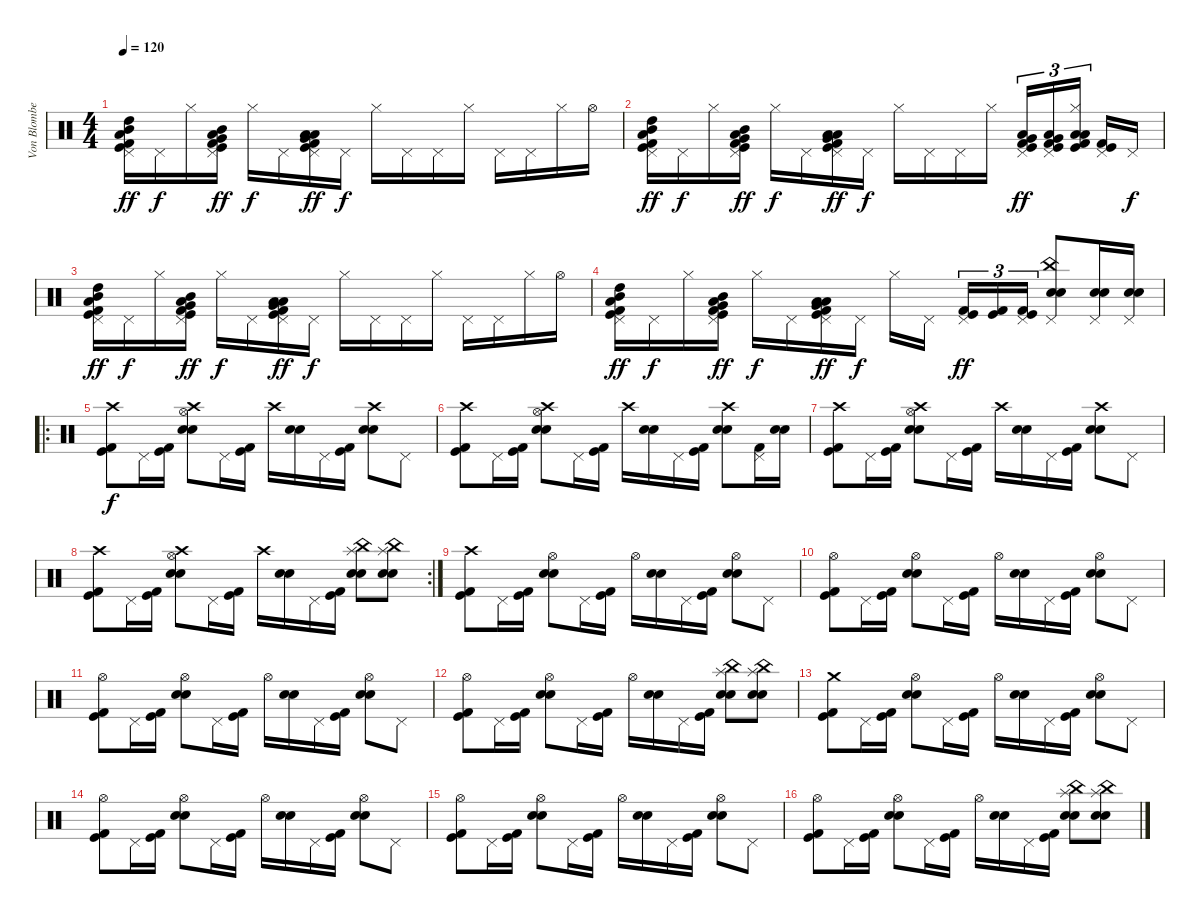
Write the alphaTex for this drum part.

\track ("Von Blomberg" "Von Blombe") {instrument percussion}
\staff {score}
\articulation defaults
\ts (4 4)
\tempo 120
\clef neutral
\ks c
("High Tom (hit)" "Mid Tom (hit)" "Pedal Hi-Hat (hit)" "Low Tom (hit)" "Kick (hit) 2" "Kick (hit)").16{dy ff} "Pedal Hi-Hat (hit)".16{dy f} "Hi-Hat (closed)".16 ("Mid Tom (hit)" "Low Tom (hit)" "Pedal Hi-Hat (hit)" "Very Low Tom (hit)" "Kick (hit)" "Kick (hit) 2").16{dy ff} "Hi-Hat (closed)".16{dy f} "Pedal Hi-Hat (hit)".16 ("Very Low Tom (hit)" "Low Floor Tom (hit)" "Pedal Hi-Hat (hit)" "Low Floor Tom (hit)" "Kick (hit)" "Kick (hit) 2").16{dy ff} "Pedal Hi-Hat (hit)".16{dy f} "Hi-Hat (closed)".16 "Pedal Hi-Hat (hit)".16 "Pedal Hi-Hat (hit)".16 "Hi-Hat (closed)".16 "Pedal Hi-Hat (hit)".16 "Pedal Hi-Hat (hit)".16 "Hi-Hat (closed)".16 "Hi-Hat (open)".16 |
("High Tom (hit)" "Mid Tom (hit)" "Pedal Hi-Hat (hit)" "Low Tom (hit)" "Kick (hit) 2" "Kick (hit)").16{dy ff} "Pedal Hi-Hat (hit)".16{dy f} "Hi-Hat (closed)".16 ("Mid Tom (hit)" "Low Tom (hit)" "Pedal Hi-Hat (hit)" "Very Low Tom (hit)" "Kick (hit)" "Kick (hit) 2").16{dy ff} "Hi-Hat (closed)".16{dy f} "Pedal Hi-Hat (hit)".16 ("Very Low Tom (hit)" "Low Floor Tom (hit)" "Pedal Hi-Hat (hit)" "Low Floor Tom (hit)" "Kick (hit)" "Kick (hit) 2").16{dy ff} "Pedal Hi-Hat (hit)".16{dy f} "Hi-Hat (closed)".16 "Pedal Hi-Hat (hit)".16 "Pedal Hi-Hat (hit)".16 "Hi-Hat (closed)".16 ("Low Tom (hit)" "Very Low Tom (hit)" "Pedal Hi-Hat (hit)" "Kick (hit)" "Kick (hit) 2").16{tu (3 2) dy ff} ("Very Low Tom (hit)" "Low Floor Tom (hit)" "Pedal Hi-Hat (hit)" "Kick (hit)" "Kick (hit) 2").16{tu (3 2)} ("Low Floor Tom (hit)" "Low Floor Tom (hit)" "Hi-Hat (closed)" "Kick (hit)" "Kick (hit) 2").16{tu (3 2)} ("Pedal Hi-Hat (hit)" "Kick (hit)" "Kick (hit) 2").16 "Pedal Hi-Hat (hit)".16{dy f} |
("High Tom (hit)" "Mid Tom (hit)" "Pedal Hi-Hat (hit)" "Low Tom (hit)" "Kick (hit) 2" "Kick (hit)").16{dy ff} "Pedal Hi-Hat (hit)".16{dy f} "Hi-Hat (closed)".16 ("Mid Tom (hit)" "Low Tom (hit)" "Pedal Hi-Hat (hit)" "Very Low Tom (hit)" "Kick (hit)" "Kick (hit) 2").16{dy ff} "Hi-Hat (closed)".16{dy f} "Pedal Hi-Hat (hit)".16 ("Very Low Tom (hit)" "Low Floor Tom (hit)" "Pedal Hi-Hat (hit)" "Low Floor Tom (hit)" "Kick (hit)" "Kick (hit) 2").16{dy ff} "Pedal Hi-Hat (hit)".16{dy f} "Hi-Hat (closed)".16 "Pedal Hi-Hat (hit)".16 "Pedal Hi-Hat (hit)".16 "Hi-Hat (closed)".16 "Pedal Hi-Hat (hit)".16 "Pedal Hi-Hat (hit)".16 "Hi-Hat (closed)".16 "Hi-Hat (open)".16 |
("High Tom (hit)" "Mid Tom (hit)" "Pedal Hi-Hat (hit)" "Low Tom (hit)" "Kick (hit) 2" "Kick (hit)").16{dy ff} "Pedal Hi-Hat (hit)".16{dy f} "Hi-Hat (closed)".16 ("Mid Tom (hit)" "Low Tom (hit)" "Pedal Hi-Hat (hit)" "Very Low Tom (hit)" "Kick (hit)" "Kick (hit) 2").16{dy ff} "Hi-Hat (closed)".16{dy f} "Pedal Hi-Hat (hit)".16 ("Very Low Tom (hit)" "Low Floor Tom (hit)" "Pedal Hi-Hat (hit)" "Low Floor Tom (hit)" "Kick (hit)" "Kick (hit) 2").16{dy ff} "Pedal Hi-Hat (hit)".16{dy f} "Hi-Hat (closed)".16 "Pedal Hi-Hat (hit)".16 ("Pedal Hi-Hat (hit)" "Kick (hit)" "Kick (hit) 2").16{tu (3 2) dy ff} ("Kick (hit)" "Kick (hit) 2").16{tu (3 2)} ("Pedal Hi-Hat (hit)" "Kick (hit)" "Kick (hit) 2").16{tu (3 2)} ("China (hit)" "Pedal Hi-Hat (hit)" "Snare (hit) 2" "Electric Snare (hit)").8 ("Pedal Hi-Hat (hit)" "Snare (hit) 2" "Electric Snare (hit)").16 ("Pedal Hi-Hat (hit)" "Snare (hit) 2" "Electric Snare (hit)").16 |
\ro
("Crash high (hit)" "Kick (hit)" "Kick (hit) 2").8{dy f} "Pedal Hi-Hat (hit)".16 ("Kick (hit)" "Kick (hit) 2").16 ("Crash high (hit)" "Hi-Hat (open)" "Snare (hit) 2" "Electric Snare (hit)").8 "Pedal Hi-Hat (hit)".16 ("Kick (hit)" "Kick (hit) 2").16 "Crash high (hit)".16 ("Snare (hit) 2" "Electric Snare (hit)").16 "Pedal Hi-Hat (hit)".16 ("Kick (hit)" "Kick (hit) 2").16 ("Crash high (hit)" "Snare (hit) 2" "Electric Snare (hit)").8 "Pedal Hi-Hat (hit)".8 |
("Crash high (hit)" "Kick (hit)" "Kick (hit) 2").8 "Pedal Hi-Hat (hit)".16 ("Kick (hit)" "Kick (hit) 2").16 ("Crash high (hit)" "Hi-Hat (open)" "Snare (hit) 2" "Electric Snare (hit)").8 "Pedal Hi-Hat (hit)".16 ("Kick (hit)" "Kick (hit) 2").16 "Crash high (hit)".16 ("Snare (hit) 2" "Electric Snare (hit)").16 "Pedal Hi-Hat (hit)".16 ("Kick (hit)" "Kick (hit) 2").16 ("Crash high (hit)" "Snare (hit) 2" "Electric Snare (hit)").8 ("Pedal Hi-Hat (hit)" "Kick (hit) 2").16 ("Electric Snare (hit)" "Snare (hit) 2").16 |
("Crash high (hit)" "Kick (hit)" "Kick (hit) 2").8 "Pedal Hi-Hat (hit)".16 ("Kick (hit)" "Kick (hit) 2").16 ("Crash high (hit)" "Hi-Hat (open)" "Snare (hit) 2" "Electric Snare (hit)").8 "Pedal Hi-Hat (hit)".16 ("Kick (hit)" "Kick (hit) 2").16 "Crash high (hit)".16 ("Snare (hit) 2" "Electric Snare (hit)").16 "Pedal Hi-Hat (hit)".16 ("Kick (hit)" "Kick (hit) 2").16 ("Crash high (hit)" "Snare (hit) 2" "Electric Snare (hit)").8 "Pedal Hi-Hat (hit)".8 |
\rc 2
("Crash high (hit)" "Kick (hit)" "Kick (hit) 2").8 "Pedal Hi-Hat (hit)".16 ("Kick (hit)" "Kick (hit) 2").16 ("Crash high (hit)" "Hi-Hat (open)" "Snare (hit) 2" "Electric Snare (hit)").8 "Pedal Hi-Hat (hit)".16 ("Kick (hit)" "Kick (hit) 2").16 "Crash high (hit)".16 ("Snare (hit) 2" "Electric Snare (hit)").16 "Pedal Hi-Hat (hit)".16 ("Kick (hit)" "Kick (hit) 2").16 ("China (hit)" "Splash (hit)" "Snare (hit) 2" "Electric Snare (hit)").8 ("China (hit)" "Splash (hit)" "Snare (hit) 2" "Electric Snare (hit)").8 |
("Crash high (hit)" "Kick (hit)" "Kick (hit) 2").8 "Pedal Hi-Hat (hit)".16 ("Kick (hit)" "Kick (hit) 2").16 ("Hi-Hat (open)" "Snare (hit) 2" "Electric Snare (hit)").8 "Pedal Hi-Hat (hit)".16 ("Kick (hit)" "Kick (hit) 2").16 "Hi-Hat (open)".16 ("Snare (hit) 2" "Electric Snare (hit)").16 "Pedal Hi-Hat (hit)".16 ("Kick (hit)" "Kick (hit) 2").16 ("Hi-Hat (open)" "Snare (hit) 2" "Electric Snare (hit)").8 "Pedal Hi-Hat (hit)".8 |
("Hi-Hat (open)" "Kick (hit)" "Kick (hit) 2").8 "Pedal Hi-Hat (hit)".16 ("Kick (hit)" "Kick (hit) 2").16 ("Hi-Hat (open)" "Snare (hit) 2" "Electric Snare (hit)").8 "Pedal Hi-Hat (hit)".16 ("Kick (hit)" "Kick (hit) 2").16 "Hi-Hat (open)".16 ("Snare (hit) 2" "Electric Snare (hit)").16 "Pedal Hi-Hat (hit)".16 ("Kick (hit)" "Kick (hit) 2").16 ("Hi-Hat (open)" "Snare (hit) 2" "Electric Snare (hit)").8 "Pedal Hi-Hat (hit)".8 |
("Hi-Hat (open)" "Kick (hit)" "Kick (hit) 2").8 "Pedal Hi-Hat (hit)".16 ("Kick (hit)" "Kick (hit) 2").16 ("Hi-Hat (open)" "Snare (hit) 2" "Electric Snare (hit)").8 "Pedal Hi-Hat (hit)".16 ("Kick (hit)" "Kick (hit) 2").16 "Hi-Hat (open)".16 ("Snare (hit) 2" "Electric Snare (hit)").16 "Pedal Hi-Hat (hit)".16 ("Kick (hit)" "Kick (hit) 2").16 ("Hi-Hat (open)" "Snare (hit) 2" "Electric Snare (hit)").8 "Pedal Hi-Hat (hit)".8 |
("Hi-Hat (open)" "Kick (hit)" "Kick (hit) 2").8 "Pedal Hi-Hat (hit)".16 ("Kick (hit)" "Kick (hit) 2").16 ("Hi-Hat (open)" "Snare (hit) 2" "Electric Snare (hit)").8 "Pedal Hi-Hat (hit)".16 ("Kick (hit)" "Kick (hit) 2").16 "Hi-Hat (open)".16 ("Snare (hit) 2" "Electric Snare (hit)").16 "Pedal Hi-Hat (hit)".16 ("Kick (hit)" "Kick (hit) 2").16 ("China (hit)" "Splash (hit)" "Snare (hit) 2" "Electric Snare (hit)").8 ("China (hit)" "Splash (hit)" "Snare (hit) 2" "Electric Snare (hit)").8 |
("Crash medium (hit)" "Kick (hit)" "Kick (hit) 2").8 "Pedal Hi-Hat (hit)".16 ("Kick (hit)" "Kick (hit) 2").16 ("Hi-Hat (open)" "Snare (hit) 2" "Electric Snare (hit)").8 "Pedal Hi-Hat (hit)".16 ("Kick (hit)" "Kick (hit) 2").16 "Hi-Hat (open)".16 ("Snare (hit) 2" "Electric Snare (hit)").16 "Pedal Hi-Hat (hit)".16 ("Kick (hit)" "Kick (hit) 2").16 ("Hi-Hat (open)" "Snare (hit) 2" "Electric Snare (hit)").8 "Pedal Hi-Hat (hit)".8 |
("Hi-Hat (open)" "Kick (hit)" "Kick (hit) 2").8 "Pedal Hi-Hat (hit)".16 ("Kick (hit)" "Kick (hit) 2").16 ("Hi-Hat (open)" "Snare (hit) 2" "Electric Snare (hit)").8 "Pedal Hi-Hat (hit)".16 ("Kick (hit)" "Kick (hit) 2").16 "Hi-Hat (open)".16 ("Snare (hit) 2" "Electric Snare (hit)").16 "Pedal Hi-Hat (hit)".16 ("Kick (hit)" "Kick (hit) 2").16 ("Hi-Hat (open)" "Snare (hit) 2" "Electric Snare (hit)").8 "Pedal Hi-Hat (hit)".8 |
("Hi-Hat (open)" "Kick (hit)" "Kick (hit) 2").8 "Pedal Hi-Hat (hit)".16 ("Kick (hit)" "Kick (hit) 2").16 ("Hi-Hat (open)" "Snare (hit) 2" "Electric Snare (hit)").8 "Pedal Hi-Hat (hit)".16 ("Kick (hit)" "Kick (hit) 2").16 "Hi-Hat (open)".16 ("Snare (hit) 2" "Electric Snare (hit)").16 "Pedal Hi-Hat (hit)".16 ("Kick (hit)" "Kick (hit) 2").16 ("Hi-Hat (open)" "Snare (hit) 2" "Electric Snare (hit)").8 "Pedal Hi-Hat (hit)".8 |
("Hi-Hat (open)" "Kick (hit)" "Kick (hit) 2").8 "Pedal Hi-Hat (hit)".16 ("Kick (hit)" "Kick (hit) 2").16 ("Hi-Hat (open)" "Snare (hit) 2" "Electric Snare (hit)").8 "Pedal Hi-Hat (hit)".16 ("Kick (hit)" "Kick (hit) 2").16 "Hi-Hat (open)".16 ("Snare (hit) 2" "Electric Snare (hit)").16 "Pedal Hi-Hat (hit)".16 ("Kick (hit)" "Kick (hit) 2").16 ("China (hit)" "Splash (hit)" "Snare (hit) 2" "Electric Snare (hit)").8 ("China (hit)" "Splash (hit)" "Snare (hit) 2" "Electric Snare (hit)").8
